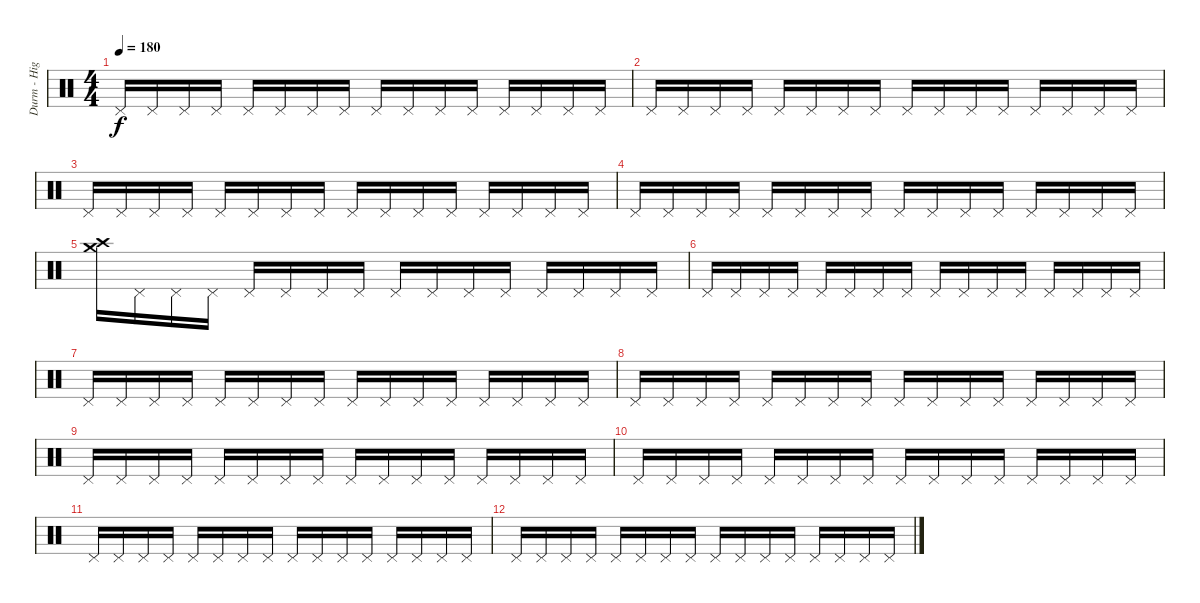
\track ("Durm - High Hat" "Durm - Hig") {instrument percussion}
\staff {score}
\articulation defaults
\ts (4 4)
\tempo 180
\clef neutral
\ks c "Pedal Hi-Hat (hit)".16{dy f} "Pedal Hi-Hat (hit)".16 "Pedal Hi-Hat (hit)".16 "Pedal Hi-Hat (hit)".16 "Pedal Hi-Hat (hit)".16 "Pedal Hi-Hat (hit)".16 "Pedal Hi-Hat (hit)".16 "Pedal Hi-Hat (hit)".16 "Pedal Hi-Hat (hit)".16 "Pedal Hi-Hat (hit)".16 "Pedal Hi-Hat (hit)".16 "Pedal Hi-Hat (hit)".16 "Pedal Hi-Hat (hit)".16 "Pedal Hi-Hat (hit)".16 "Pedal Hi-Hat (hit)".16 "Pedal Hi-Hat (hit)".16
|
"Pedal Hi-Hat (hit)".16 "Pedal Hi-Hat (hit)".16 "Pedal Hi-Hat (hit)".16 "Pedal Hi-Hat (hit)".16 "Pedal Hi-Hat (hit)".16 "Pedal Hi-Hat (hit)".16 "Pedal Hi-Hat (hit)".16 "Pedal Hi-Hat (hit)".16 "Pedal Hi-Hat (hit)".16 "Pedal Hi-Hat (hit)".16 "Pedal Hi-Hat (hit)".16 "Pedal Hi-Hat (hit)".16 "Pedal Hi-Hat (hit)".16 "Pedal Hi-Hat (hit)".16 "Pedal Hi-Hat (hit)".16 "Pedal Hi-Hat (hit)".16 |
"Pedal Hi-Hat (hit)".16 "Pedal Hi-Hat (hit)".16 "Pedal Hi-Hat (hit)".16 "Pedal Hi-Hat (hit)".16 "Pedal Hi-Hat (hit)".16 "Pedal Hi-Hat (hit)".16 "Pedal Hi-Hat (hit)".16 "Pedal Hi-Hat (hit)".16 "Pedal Hi-Hat (hit)".16 "Pedal Hi-Hat (hit)".16 "Pedal Hi-Hat (hit)".16 "Pedal Hi-Hat (hit)".16 "Pedal Hi-Hat (hit)".16 "Pedal Hi-Hat (hit)".16 "Pedal Hi-Hat (hit)".16 "Pedal Hi-Hat (hit)".16 |
"Pedal Hi-Hat (hit)".16 "Pedal Hi-Hat (hit)".16 "Pedal Hi-Hat (hit)".16 "Pedal Hi-Hat (hit)".16 "Pedal Hi-Hat (hit)".16 "Pedal Hi-Hat (hit)".16 "Pedal Hi-Hat (hit)".16 "Pedal Hi-Hat (hit)".16 "Pedal Hi-Hat (hit)".16 "Pedal Hi-Hat (hit)".16 "Pedal Hi-Hat (hit)".16 "Pedal Hi-Hat (hit)".16 "Pedal Hi-Hat (hit)".16 "Pedal Hi-Hat (hit)".16 "Pedal Hi-Hat (hit)".16 "Pedal Hi-Hat (hit)".16 |
("Crash medium (hit)" "Crash high (hit)").16 "Pedal Hi-Hat (hit)".16 "Pedal Hi-Hat (hit)".16 "Pedal Hi-Hat (hit)".16 "Pedal Hi-Hat (hit)".16 "Pedal Hi-Hat (hit)".16 "Pedal Hi-Hat (hit)".16 "Pedal Hi-Hat (hit)".16 "Pedal Hi-Hat (hit)".16 "Pedal Hi-Hat (hit)".16 "Pedal Hi-Hat (hit)".16 "Pedal Hi-Hat (hit)".16 "Pedal Hi-Hat (hit)".16 "Pedal Hi-Hat (hit)".16 "Pedal Hi-Hat (hit)".16 "Pedal Hi-Hat (hit)".16 |
"Pedal Hi-Hat (hit)".16 "Pedal Hi-Hat (hit)".16 "Pedal Hi-Hat (hit)".16 "Pedal Hi-Hat (hit)".16 "Pedal Hi-Hat (hit)".16 "Pedal Hi-Hat (hit)".16 "Pedal Hi-Hat (hit)".16 "Pedal Hi-Hat (hit)".16 "Pedal Hi-Hat (hit)".16 "Pedal Hi-Hat (hit)".16 "Pedal Hi-Hat (hit)".16 "Pedal Hi-Hat (hit)".16 "Pedal Hi-Hat (hit)".16 "Pedal Hi-Hat (hit)".16 "Pedal Hi-Hat (hit)".16 "Pedal Hi-Hat (hit)".16 |
"Pedal Hi-Hat (hit)".16 "Pedal Hi-Hat (hit)".16 "Pedal Hi-Hat (hit)".16 "Pedal Hi-Hat (hit)".16 "Pedal Hi-Hat (hit)".16 "Pedal Hi-Hat (hit)".16 "Pedal Hi-Hat (hit)".16 "Pedal Hi-Hat (hit)".16 "Pedal Hi-Hat (hit)".16 "Pedal Hi-Hat (hit)".16 "Pedal Hi-Hat (hit)".16 "Pedal Hi-Hat (hit)".16 "Pedal Hi-Hat (hit)".16 "Pedal Hi-Hat (hit)".16 "Pedal Hi-Hat (hit)".16 "Pedal Hi-Hat (hit)".16 |
"Pedal Hi-Hat (hit)".16 "Pedal Hi-Hat (hit)".16 "Pedal Hi-Hat (hit)".16 "Pedal Hi-Hat (hit)".16 "Pedal Hi-Hat (hit)".16 "Pedal Hi-Hat (hit)".16 "Pedal Hi-Hat (hit)".16 "Pedal Hi-Hat (hit)".16 "Pedal Hi-Hat (hit)".16 "Pedal Hi-Hat (hit)".16 "Pedal Hi-Hat (hit)".16 "Pedal Hi-Hat (hit)".16 "Pedal Hi-Hat (hit)".16 "Pedal Hi-Hat (hit)".16 "Pedal Hi-Hat (hit)".16 "Pedal Hi-Hat (hit)".16 |
"Pedal Hi-Hat (hit)".16 "Pedal Hi-Hat (hit)".16 "Pedal Hi-Hat (hit)".16 "Pedal Hi-Hat (hit)".16 "Pedal Hi-Hat (hit)".16 "Pedal Hi-Hat (hit)".16 "Pedal Hi-Hat (hit)".16 "Pedal Hi-Hat (hit)".16 "Pedal Hi-Hat (hit)".16 "Pedal Hi-Hat (hit)".16 "Pedal Hi-Hat (hit)".16 "Pedal Hi-Hat (hit)".16 "Pedal Hi-Hat (hit)".16 "Pedal Hi-Hat (hit)".16 "Pedal Hi-Hat (hit)".16 "Pedal Hi-Hat (hit)".16 |
"Pedal Hi-Hat (hit)".16 "Pedal Hi-Hat (hit)".16 "Pedal Hi-Hat (hit)".16 "Pedal Hi-Hat (hit)".16 "Pedal Hi-Hat (hit)".16 "Pedal Hi-Hat (hit)".16 "Pedal Hi-Hat (hit)".16 "Pedal Hi-Hat (hit)".16 "Pedal Hi-Hat (hit)".16 "Pedal Hi-Hat (hit)".16 "Pedal Hi-Hat (hit)".16 "Pedal Hi-Hat (hit)".16 "Pedal Hi-Hat (hit)".16 "Pedal Hi-Hat (hit)".16 "Pedal Hi-Hat (hit)".16 "Pedal Hi-Hat (hit)".16 |
"Pedal Hi-Hat (hit)".16 "Pedal Hi-Hat (hit)".16 "Pedal Hi-Hat (hit)".16 "Pedal Hi-Hat (hit)".16 "Pedal Hi-Hat (hit)".16 "Pedal Hi-Hat (hit)".16 "Pedal Hi-Hat (hit)".16 "Pedal Hi-Hat (hit)".16 "Pedal Hi-Hat (hit)".16 "Pedal Hi-Hat (hit)".16 "Pedal Hi-Hat (hit)".16 "Pedal Hi-Hat (hit)".16 "Pedal Hi-Hat (hit)".16 "Pedal Hi-Hat (hit)".16 "Pedal Hi-Hat (hit)".16 "Pedal Hi-Hat (hit)".16 |
"Pedal Hi-Hat (hit)".16 "Pedal Hi-Hat (hit)".16 "Pedal Hi-Hat (hit)".16 "Pedal Hi-Hat (hit)".16 "Pedal Hi-Hat (hit)".16 "Pedal Hi-Hat (hit)".16 "Pedal Hi-Hat (hit)".16 "Pedal Hi-Hat (hit)".16 "Pedal Hi-Hat (hit)".16 "Pedal Hi-Hat (hit)".16 "Pedal Hi-Hat (hit)".16 "Pedal Hi-Hat (hit)".16 "Pedal Hi-Hat (hit)".16 "Pedal Hi-Hat (hit)".16 "Pedal Hi-Hat (hit)".16 "Pedal Hi-Hat (hit)".16
